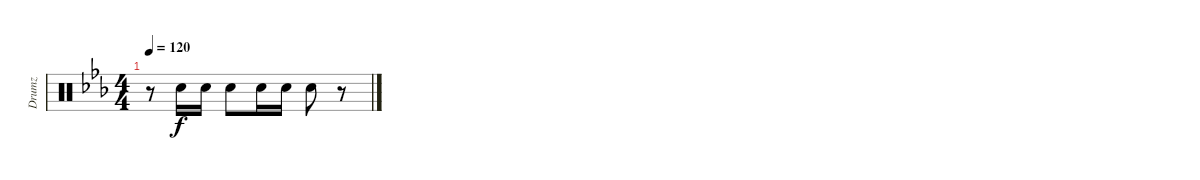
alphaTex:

\track ("Drumz" "Drumz") {instrument percussion}
\staff {score}
\articulation defaults
\ts (4 4)
\tempo 120
\clef neutral
\ks eb
r.8{dy f} "Electric Snare (hit)".16 "Electric Snare (hit)".16 "Electric Snare (hit)".8 "Electric Snare (hit)".16 "Electric Snare (hit)".16 "Electric Snare (hit)".8 r.8
